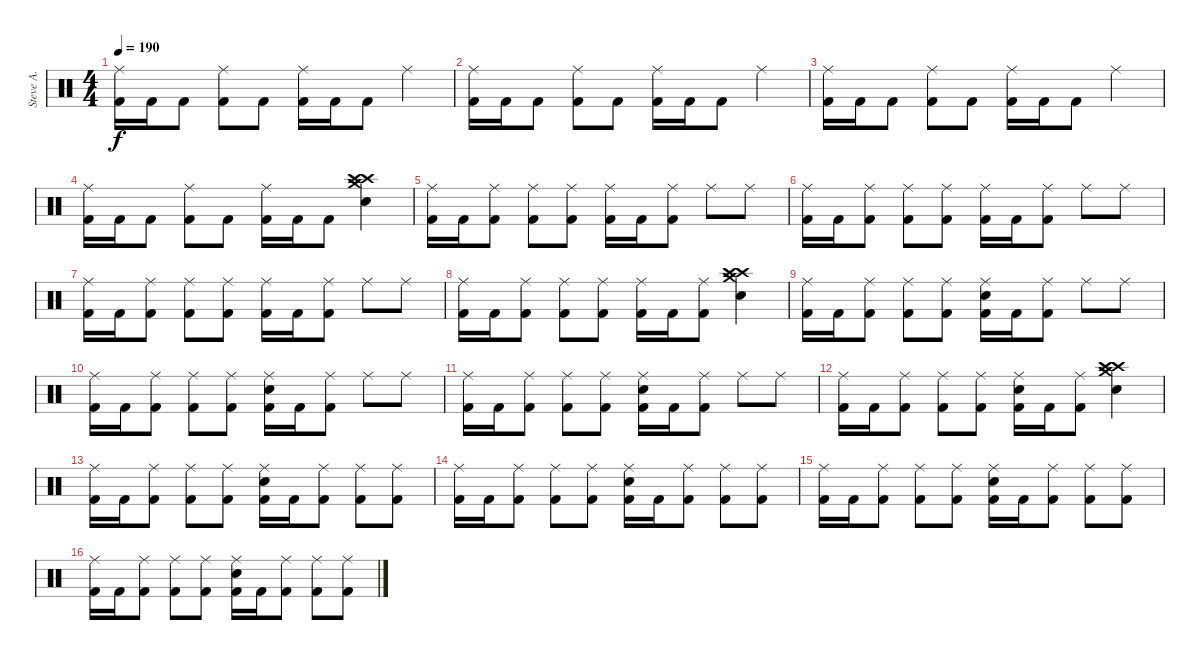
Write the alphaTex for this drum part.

\track ("Steve A." "Steve A.") {instrument percussion}
\staff {score}
\articulation defaults
\ts (4 4)
\tempo 190
\clef neutral
\ks c
("Kick (hit) 2" "Ride (middle)").16{dy f} "Kick (hit) 2".16 "Kick (hit) 2".8 ("Kick (hit) 2" "Ride (middle)").8 "Kick (hit) 2".8 ("Kick (hit) 2" "Ride (middle)").16 "Kick (hit) 2".16 "Kick (hit) 2".8 "Ride (middle)".4 |
("Kick (hit) 2" "Ride (middle)").16 "Kick (hit) 2".16 "Kick (hit) 2".8 ("Kick (hit) 2" "Ride (middle)").8 "Kick (hit) 2".8 ("Kick (hit) 2" "Ride (middle)").16 "Kick (hit) 2".16 "Kick (hit) 2".8 "Ride (middle)".4 |
("Kick (hit) 2" "Ride (middle)").16 "Kick (hit) 2".16 "Kick (hit) 2".8 ("Kick (hit) 2" "Ride (middle)").8 "Kick (hit) 2".8 ("Kick (hit) 2" "Ride (middle)").16 "Kick (hit) 2".16 "Kick (hit) 2".8 "Ride (middle)".4 |
("Kick (hit) 2" "Ride (middle)").16 "Kick (hit) 2".16 "Kick (hit) 2".8 ("Kick (hit) 2" "Ride (middle)").8 "Kick (hit) 2".8 ("Kick (hit) 2" "Ride (middle)").16 "Kick (hit) 2".16 "Kick (hit) 2".8 ("Crash high (hit)" "Crash medium (hit)" "Electric Snare (hit)" "Crash high (hit)").4 |
("Kick (hit) 2" "Ride (middle)").16 "Kick (hit) 2".16 ("Kick (hit) 2" "Ride (middle)").8 ("Kick (hit) 2" "Ride (middle)").8 ("Kick (hit) 2" "Ride (middle)").8 ("Kick (hit) 2" "Ride (middle)").16 "Kick (hit) 2".16 ("Kick (hit) 2" "Ride (middle)").8 "Ride (middle)".8 "Ride (middle)".8 |
("Kick (hit) 2" "Ride (middle)").16 "Kick (hit) 2".16 ("Kick (hit) 2" "Ride (middle)").8 ("Kick (hit) 2" "Ride (middle)").8 ("Kick (hit) 2" "Ride (middle)").8 ("Kick (hit) 2" "Ride (middle)").16 "Kick (hit) 2".16 ("Kick (hit) 2" "Ride (middle)").8 "Ride (middle)".8 "Ride (middle)".8 |
("Kick (hit) 2" "Ride (middle)").16 "Kick (hit) 2".16 ("Kick (hit) 2" "Ride (middle)").8 ("Kick (hit) 2" "Ride (middle)").8 ("Kick (hit) 2" "Ride (middle)").8 ("Kick (hit) 2" "Ride (middle)").16 "Kick (hit) 2".16 ("Kick (hit) 2" "Ride (middle)").8 "Ride (middle)".8 "Ride (middle)".8 |
("Kick (hit) 2" "Ride (middle)").16 "Kick (hit) 2".16 ("Kick (hit) 2" "Ride (middle)").8 ("Kick (hit) 2" "Ride (middle)").8 ("Kick (hit) 2" "Ride (middle)").8 ("Kick (hit) 2" "Ride (middle)").16 "Kick (hit) 2".16 ("Kick (hit) 2" "Ride (middle)").8 ("Crash high (hit)" "Crash medium (hit)" "Electric Snare (hit)" "Crash high (hit)").4 |
("Kick (hit) 2" "Ride (middle)").16 "Kick (hit) 2".16 ("Kick (hit) 2" "Ride (middle)").8 ("Kick (hit) 2" "Ride (middle)").8 ("Kick (hit) 2" "Ride (middle)").8 ("Kick (hit) 2" "Ride (middle)" "Electric Snare (hit)").16 "Kick (hit) 2".16 ("Kick (hit) 2" "Ride (middle)").8 "Ride (middle)".8 "Ride (middle)".8 |
("Kick (hit) 2" "Ride (middle)").16 "Kick (hit) 2".16 ("Kick (hit) 2" "Ride (middle)").8 ("Kick (hit) 2" "Ride (middle)").8 ("Kick (hit) 2" "Ride (middle)").8 ("Kick (hit) 2" "Ride (middle)" "Electric Snare (hit)").16 "Kick (hit) 2".16 ("Kick (hit) 2" "Ride (middle)").8 "Ride (middle)".8 "Ride (middle)".8 |
("Kick (hit) 2" "Ride (middle)").16 "Kick (hit) 2".16 ("Kick (hit) 2" "Ride (middle)").8 ("Kick (hit) 2" "Ride (middle)").8 ("Kick (hit) 2" "Ride (middle)").8 ("Kick (hit) 2" "Ride (middle)" "Electric Snare (hit)").16 "Kick (hit) 2".16 ("Kick (hit) 2" "Ride (middle)").8 "Ride (middle)".8 "Ride (middle)".8 |
("Kick (hit) 2" "Ride (middle)").16 "Kick (hit) 2".16 ("Kick (hit) 2" "Ride (middle)").8 ("Kick (hit) 2" "Ride (middle)").8 ("Kick (hit) 2" "Ride (middle)").8 ("Kick (hit) 2" "Ride (middle)" "Electric Snare (hit)").16 "Kick (hit) 2".16 ("Kick (hit) 2" "Ride (middle)").8 ("Crash high (hit)" "Crash medium (hit)" "Electric Snare (hit)" "Crash high (hit)").4 |
("Kick (hit) 2" "Ride (middle)").16 "Kick (hit) 2".16 ("Kick (hit) 2" "Ride (middle)").8 ("Kick (hit) 2" "Ride (middle)").8 ("Kick (hit) 2" "Ride (middle)").8 ("Kick (hit) 2" "Ride (middle)" "Electric Snare (hit)").16 "Kick (hit) 2".16 ("Kick (hit) 2" "Ride (middle)").8 ("Kick (hit) 2" "Ride (middle)").8 ("Kick (hit) 2" "Ride (middle)").8 |
("Kick (hit) 2" "Ride (middle)").16 "Kick (hit) 2".16 ("Kick (hit) 2" "Ride (middle)").8 ("Kick (hit) 2" "Ride (middle)").8 ("Kick (hit) 2" "Ride (middle)").8 ("Kick (hit) 2" "Ride (middle)" "Electric Snare (hit)").16 "Kick (hit) 2".16 ("Kick (hit) 2" "Ride (middle)").8 ("Kick (hit) 2" "Ride (middle)").8 ("Kick (hit) 2" "Ride (middle)").8 |
("Kick (hit) 2" "Ride (middle)").16 "Kick (hit) 2".16 ("Kick (hit) 2" "Ride (middle)").8 ("Kick (hit) 2" "Ride (middle)").8 ("Kick (hit) 2" "Ride (middle)").8 ("Kick (hit) 2" "Ride (middle)" "Electric Snare (hit)").16 "Kick (hit) 2".16 ("Kick (hit) 2" "Ride (middle)").8 ("Kick (hit) 2" "Ride (middle)").8 ("Kick (hit) 2" "Ride (middle)").8 |
("Kick (hit) 2" "Ride (middle)").16 "Kick (hit) 2".16 ("Kick (hit) 2" "Ride (middle)").8 ("Kick (hit) 2" "Ride (middle)").8 ("Kick (hit) 2" "Ride (middle)").8 ("Kick (hit) 2" "Ride (middle)" "Electric Snare (hit)").16 "Kick (hit) 2".16 ("Kick (hit) 2" "Ride (middle)").8 ("Kick (hit) 2" "Ride (middle)").8 ("Kick (hit) 2" "Ride (middle)").8
